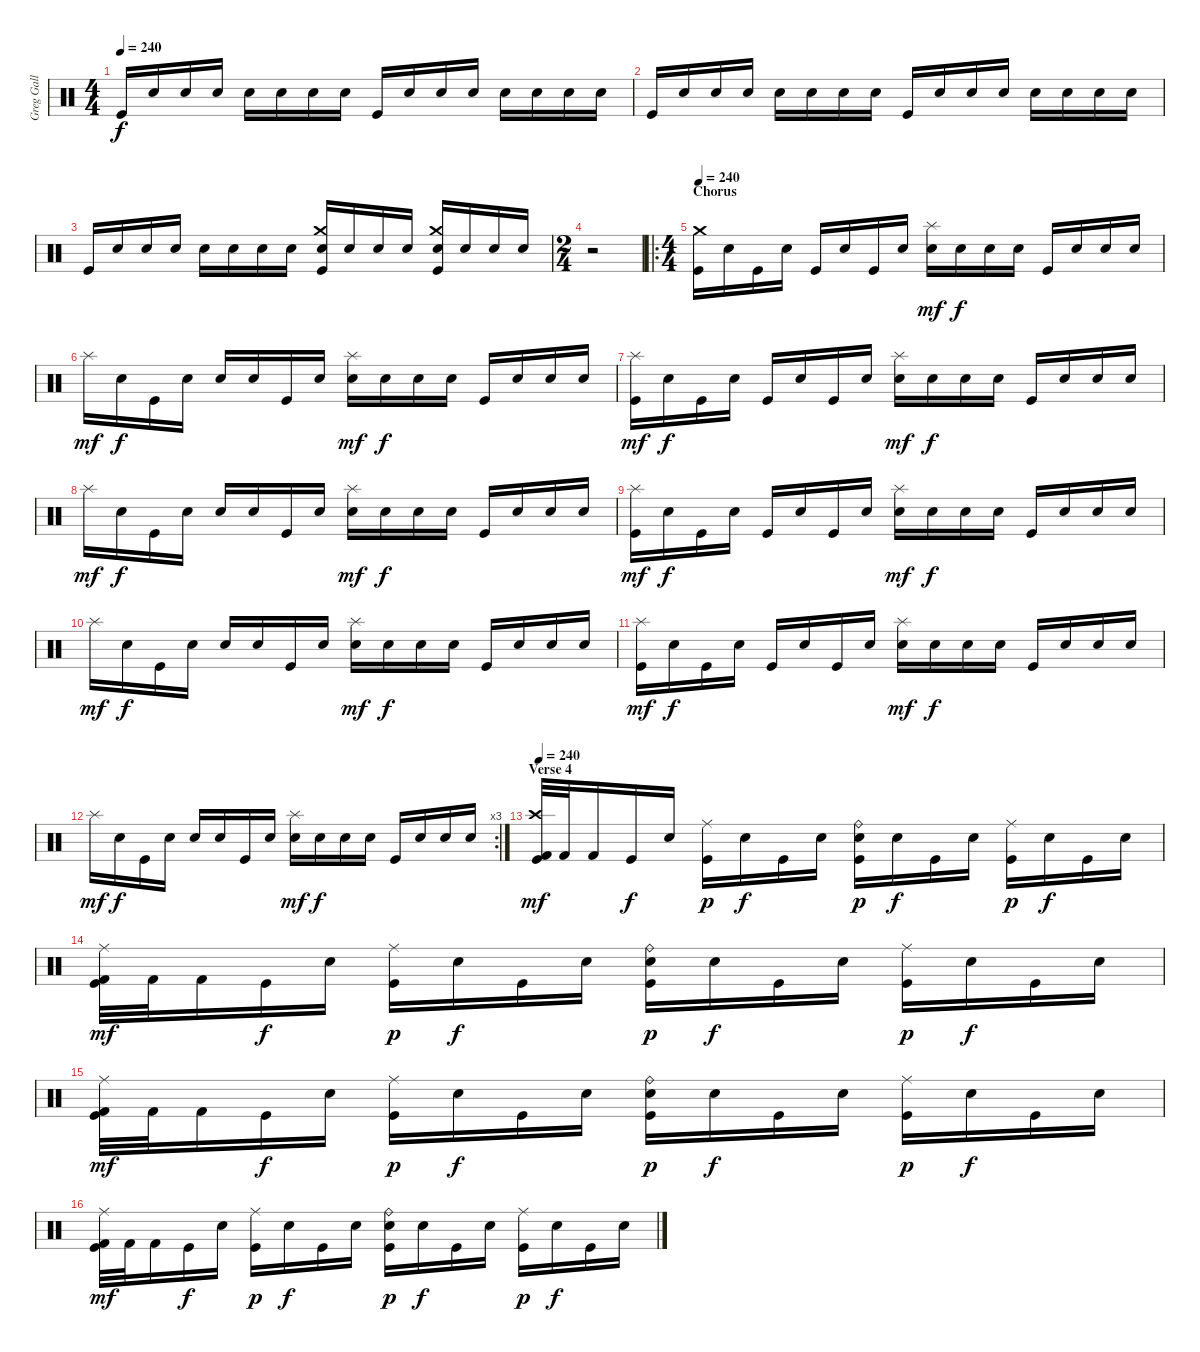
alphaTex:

\track ("Greg Gall - Drums" "Greg Gall ") {instrument percussion}
\staff {score}
\articulation defaults
\ts (4 4)
\tempo 240
\clef neutral
\ks c "Kick (hit)".16{dy f} "Snare (hit)".16 "Snare (hit)".16 "Snare (hit)".16 "Snare (hit)".16 "Snare (hit)".16 "Snare (hit)".16 "Snare (hit)".16 "Kick (hit)".16 "Snare (hit)".16 "Snare (hit)".16 "Snare (hit)".16 "Snare (hit)".16 "Snare (hit)".16 "Snare (hit)".16 "Snare (hit)".16
|
"Kick (hit)".16 "Snare (hit)".16 "Snare (hit)".16 "Snare (hit)".16 "Snare (hit)".16 "Snare (hit)".16 "Snare (hit)".16 "Snare (hit)".16 "Kick (hit)".16 "Snare (hit)".16 "Snare (hit)".16 "Snare (hit)".16 "Snare (hit)".16 "Snare (hit)".16 "Snare (hit)".16 "Snare (hit)".16 |
"Kick (hit)".16 "Snare (hit)".16 "Snare (hit)".16 "Snare (hit)".16 "Snare (hit)".16 "Snare (hit)".16 "Snare (hit)".16 "Snare (hit)".16 ("Crash medium (hit)" "Electric Snare (hit)" "Kick (hit)").16 "Snare (hit)".16 "Snare (hit)".16 "Snare (hit)".16 ("Crash medium (hit)" "Electric Snare (hit)" "Kick (hit)").16 "Snare (hit)".16 "Snare (hit)".16 "Snare (hit)".16 |
\ts (2 4)
r.2{volume 0 balance 8} |
\ro
\ts (4 4)
\section ("" "Chorus")
\tempo 240
("Crash medium (hit)" "Kick (hit)").16{volume 12 balance 8} "Snare (hit)".16 "Kick (hit)".16 "Snare (hit)".16 "Kick (hit)".16 "Snare (hit)".16 "Kick (hit)".16 "Snare (hit)".16 ("Splash (hit)" "Electric Snare (hit)").16{dy mf} "Snare (hit)".16{dy f} "Snare (hit)".16 "Snare (hit)".16 "Kick (hit)".16 "Snare (hit)".16 "Snare (hit)".16 "Snare (hit)".16 |
"Splash (hit)".16{dy mf} "Snare (hit)".16{dy f} "Kick (hit)".16 "Snare (hit)".16 "Snare (hit)".16 "Snare (hit)".16 "Kick (hit)".16 "Snare (hit)".16 ("Splash (hit)" "Electric Snare (hit)").16{dy mf} "Snare (hit)".16{dy f} "Snare (hit)".16 "Snare (hit)".16 "Kick (hit)".16 "Snare (hit)".16 "Snare (hit)".16 "Snare (hit)".16 |
("Splash (hit)" "Kick (hit)").16{dy mf} "Snare (hit)".16{dy f} "Kick (hit)".16 "Snare (hit)".16 "Kick (hit)".16 "Snare (hit)".16 "Kick (hit)".16 "Snare (hit)".16 ("Splash (hit)" "Electric Snare (hit)").16{dy mf} "Snare (hit)".16{dy f} "Snare (hit)".16 "Snare (hit)".16 "Kick (hit)".16 "Snare (hit)".16 "Snare (hit)".16 "Snare (hit)".16 |
"Splash (hit)".16{dy mf} "Snare (hit)".16{dy f} "Kick (hit)".16 "Snare (hit)".16 "Snare (hit)".16 "Snare (hit)".16 "Kick (hit)".16 "Snare (hit)".16 ("Splash (hit)" "Electric Snare (hit)").16{dy mf} "Snare (hit)".16{dy f} "Snare (hit)".16 "Snare (hit)".16 "Kick (hit)".16 "Snare (hit)".16 "Snare (hit)".16 "Snare (hit)".16 |
("Splash (hit)" "Kick (hit)").16{dy mf} "Snare (hit)".16{dy f} "Kick (hit)".16 "Snare (hit)".16 "Kick (hit)".16 "Snare (hit)".16 "Kick (hit)".16 "Snare (hit)".16 ("Splash (hit)" "Electric Snare (hit)").16{dy mf} "Snare (hit)".16{dy f} "Snare (hit)".16 "Snare (hit)".16 "Kick (hit)".16 "Snare (hit)".16 "Snare (hit)".16 "Snare (hit)".16 |
"Splash (hit)".16{dy mf} "Snare (hit)".16{dy f} "Kick (hit)".16 "Snare (hit)".16 "Snare (hit)".16 "Snare (hit)".16 "Kick (hit)".16 "Snare (hit)".16 ("Splash (hit)" "Electric Snare (hit)").16{dy mf} "Snare (hit)".16{dy f} "Snare (hit)".16 "Snare (hit)".16 "Kick (hit)".16 "Snare (hit)".16 "Snare (hit)".16 "Snare (hit)".16 |
("Splash (hit)" "Kick (hit)").16{dy mf} "Snare (hit)".16{dy f} "Kick (hit)".16 "Snare (hit)".16 "Kick (hit)".16 "Snare (hit)".16 "Kick (hit)".16 "Snare (hit)".16 ("Splash (hit)" "Electric Snare (hit)").16{dy mf} "Snare (hit)".16{dy f} "Snare (hit)".16 "Snare (hit)".16 "Kick (hit)".16 "Snare (hit)".16 "Snare (hit)".16 "Snare (hit)".16 |
\rc 3 "Splash (hit)".16{dy mf} "Snare (hit)".16{dy f} "Kick (hit)".16 "Snare (hit)".16 "Snare (hit)".16 "Snare (hit)".16 "Kick (hit)".16 "Snare (hit)".16
("Splash (hit)" "Electric Snare (hit)").16{dy mf} "Snare (hit)".16{dy f} "Snare (hit)".16 "Snare (hit)".16 "Kick (hit)".16 "Snare (hit)".16 "Snare (hit)".16 "Snare (hit)".16 |
\section ("" "Verse 4")
\tempo 240
("Crash high (hit)" "Kick (hit) 2" "Kick (hit)").32{dy mf volume 12 balance 8} "Kick (hit) 2".32 "Kick (hit) 2".16 "Kick (hit)".16{dy f} "Snare (hit)".16 ("Ride (middle)" "Kick (hit)").16{dy p} "Snare (hit)".16{dy f} "Kick (hit)".16 "Snare (hit)".16 ("Ride (bell)" "Electric Snare (hit)" "Kick (hit)").16{dy p} "Snare (hit)".16{dy f} "Kick (hit)".16 "Snare (hit)".16 ("Ride (middle)" "Kick (hit)").16{dy p} "Snare (hit)".16{dy f} "Kick (hit)".16 "Snare (hit)".16 |
("Ride (middle)" "Kick (hit) 2" "Kick (hit)").32{dy mf} "Kick (hit) 2".32 "Kick (hit) 2".16 "Kick (hit)".16{dy f} "Snare (hit)".16 ("Ride (middle)" "Kick (hit)").16{dy p} "Snare (hit)".16{dy f} "Kick (hit)".16 "Snare (hit)".16 ("Ride (bell)" "Electric Snare (hit)" "Kick (hit)").16{dy p} "Snare (hit)".16{dy f} "Kick (hit)".16 "Snare (hit)".16 ("Ride (middle)" "Kick (hit)").16{dy p} "Snare (hit)".16{dy f} "Kick (hit)".16 "Snare (hit)".16 |
("Ride (middle)" "Kick (hit) 2" "Kick (hit)").32{dy mf} "Kick (hit) 2".32 "Kick (hit) 2".16 "Kick (hit)".16{dy f} "Snare (hit)".16 ("Ride (middle)" "Kick (hit)").16{dy p} "Snare (hit)".16{dy f} "Kick (hit)".16 "Snare (hit)".16 ("Ride (bell)" "Electric Snare (hit)" "Kick (hit)").16{dy p} "Snare (hit)".16{dy f} "Kick (hit)".16 "Snare (hit)".16 ("Ride (middle)" "Kick (hit)").16{dy p} "Snare (hit)".16{dy f} "Kick (hit)".16 "Snare (hit)".16 |
("Ride (middle)" "Kick (hit) 2" "Kick (hit)").32{dy mf} "Kick (hit) 2".32 "Kick (hit) 2".16 "Kick (hit)".16{dy f} "Snare (hit)".16 ("Ride (middle)" "Kick (hit)").16{dy p} "Snare (hit)".16{dy f} "Kick (hit)".16 "Snare (hit)".16 ("Ride (bell)" "Electric Snare (hit)" "Kick (hit)").16{dy p} "Snare (hit)".16{dy f} "Kick (hit)".16 "Snare (hit)".16 ("Ride (middle)" "Kick (hit)").16{dy p} "Snare (hit)".16{dy f} "Kick (hit)".16 "Snare (hit)".16
